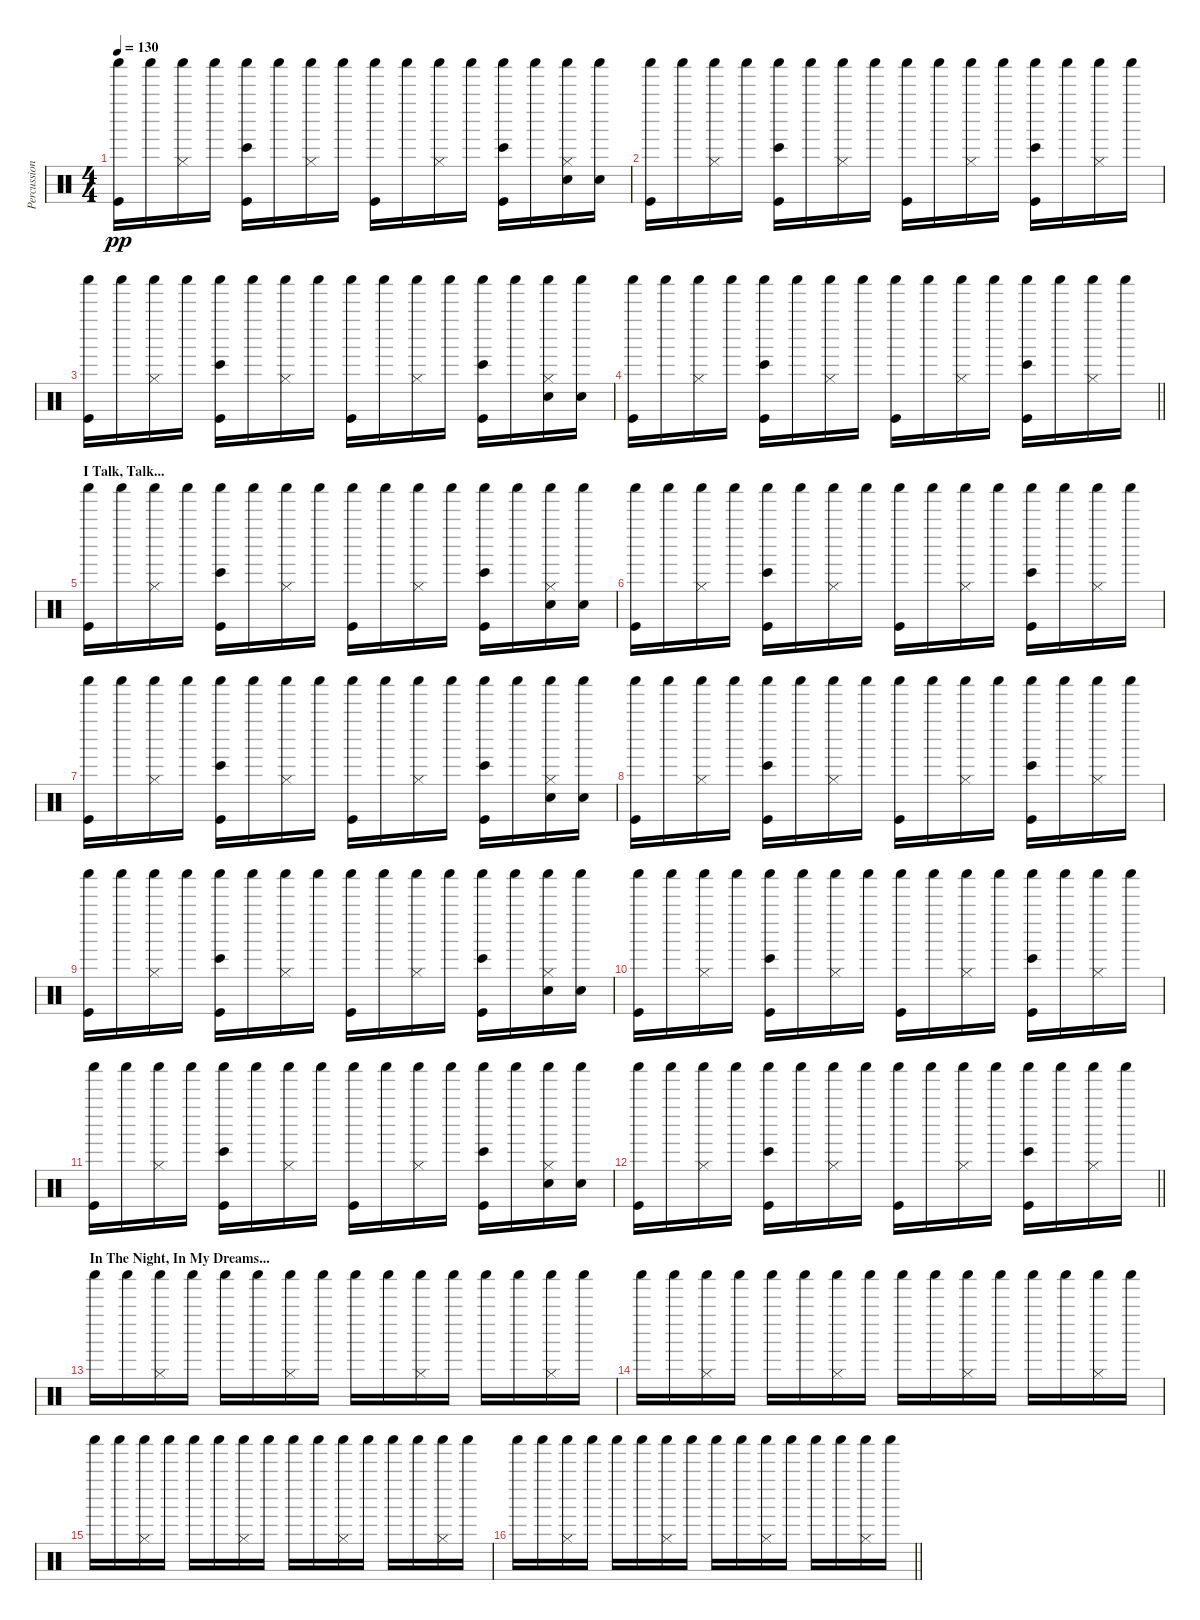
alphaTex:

\track ("Percussion" "Percussion") {instrument percussion}
\staff {score}
\articulation defaults
\ts (4 4)
\tempo 130
\clef neutral
\ks c
("Kick (hit)" "Shaker (hit)").16{dy pp} "Shaker (hit)".16 ("Hi-Hat (closed)" "Shaker (hit)").16 "Shaker (hit)".16 ("Kick (hit)" "Bongo High (hit)" "Shaker (hit)").16 "Shaker (hit)".16 ("Hi-Hat (closed)" "Shaker (hit)").16 "Shaker (hit)".16 ("Kick (hit)" "Shaker (hit)").16 "Shaker (hit)".16 ("Hi-Hat (closed)" "Shaker (hit)").16 "Shaker (hit)".16 ("Kick (hit)" "Bongo High (hit)" "Shaker (hit)").16 "Shaker (hit)".16 ("Electric Snare (hit)" "Hi-Hat (closed)" "Shaker (hit)").16 ("Electric Snare (hit)" "Shaker (hit)").16 |
("Kick (hit)" "Shaker (hit)").16 "Shaker (hit)".16 ("Hi-Hat (closed)" "Shaker (hit)").16 "Shaker (hit)".16 ("Kick (hit)" "Bongo High (hit)" "Shaker (hit)").16 "Shaker (hit)".16 ("Hi-Hat (closed)" "Shaker (hit)").16 "Shaker (hit)".16 ("Kick (hit)" "Shaker (hit)").16 "Shaker (hit)".16 ("Hi-Hat (closed)" "Shaker (hit)").16 "Shaker (hit)".16 ("Kick (hit)" "Bongo High (hit)" "Shaker (hit)").16 "Shaker (hit)".16 ("Hi-Hat (closed)" "Shaker (hit)").16 "Shaker (hit)".16 |
("Kick (hit)" "Shaker (hit)").16 "Shaker (hit)".16 ("Hi-Hat (closed)" "Shaker (hit)").16 "Shaker (hit)".16 ("Kick (hit)" "Bongo High (hit)" "Shaker (hit)").16 "Shaker (hit)".16 ("Hi-Hat (closed)" "Shaker (hit)").16 "Shaker (hit)".16 ("Kick (hit)" "Shaker (hit)").16 "Shaker (hit)".16 ("Hi-Hat (closed)" "Shaker (hit)").16 "Shaker (hit)".16 ("Kick (hit)" "Bongo High (hit)" "Shaker (hit)").16 "Shaker (hit)".16 ("Electric Snare (hit)" "Hi-Hat (closed)" "Shaker (hit)").16 ("Electric Snare (hit)" "Shaker (hit)").16 |
\barLineRight lightlight
("Kick (hit)" "Shaker (hit)").16 "Shaker (hit)".16 ("Hi-Hat (closed)" "Shaker (hit)").16 "Shaker (hit)".16 ("Kick (hit)" "Bongo High (hit)" "Shaker (hit)").16 "Shaker (hit)".16 ("Hi-Hat (closed)" "Shaker (hit)").16 "Shaker (hit)".16 ("Kick (hit)" "Shaker (hit)").16 "Shaker (hit)".16 ("Hi-Hat (closed)" "Shaker (hit)").16 "Shaker (hit)".16 ("Kick (hit)" "Bongo High (hit)" "Shaker (hit)").16 "Shaker (hit)".16 ("Hi-Hat (closed)" "Shaker (hit)").16 "Shaker (hit)".16 |
\section ("" "I Talk, Talk...")
("Kick (hit)" "Shaker (hit)").16 "Shaker (hit)".16 ("Hi-Hat (closed)" "Shaker (hit)").16 "Shaker (hit)".16 ("Kick (hit)" "Bongo High (hit)" "Shaker (hit)").16 "Shaker (hit)".16 ("Hi-Hat (closed)" "Shaker (hit)").16 "Shaker (hit)".16 ("Kick (hit)" "Shaker (hit)").16 "Shaker (hit)".16 ("Hi-Hat (closed)" "Shaker (hit)").16 "Shaker (hit)".16 ("Kick (hit)" "Bongo High (hit)" "Shaker (hit)").16 "Shaker (hit)".16 ("Electric Snare (hit)" "Hi-Hat (closed)" "Shaker (hit)").16 ("Electric Snare (hit)" "Shaker (hit)").16 |
("Kick (hit)" "Shaker (hit)").16 "Shaker (hit)".16 ("Hi-Hat (closed)" "Shaker (hit)").16 "Shaker (hit)".16 ("Kick (hit)" "Bongo High (hit)" "Shaker (hit)").16 "Shaker (hit)".16 ("Hi-Hat (closed)" "Shaker (hit)").16 "Shaker (hit)".16 ("Kick (hit)" "Shaker (hit)").16 "Shaker (hit)".16 ("Hi-Hat (closed)" "Shaker (hit)").16 "Shaker (hit)".16 ("Kick (hit)" "Bongo High (hit)" "Shaker (hit)").16 "Shaker (hit)".16 ("Hi-Hat (closed)" "Shaker (hit)").16 "Shaker (hit)".16 |
("Kick (hit)" "Shaker (hit)").16 "Shaker (hit)".16 ("Hi-Hat (closed)" "Shaker (hit)").16 "Shaker (hit)".16 ("Kick (hit)" "Bongo High (hit)" "Shaker (hit)").16 "Shaker (hit)".16 ("Hi-Hat (closed)" "Shaker (hit)").16 "Shaker (hit)".16 ("Kick (hit)" "Shaker (hit)").16 "Shaker (hit)".16 ("Hi-Hat (closed)" "Shaker (hit)").16 "Shaker (hit)".16 ("Kick (hit)" "Bongo High (hit)" "Shaker (hit)").16 "Shaker (hit)".16 ("Electric Snare (hit)" "Hi-Hat (closed)" "Shaker (hit)").16 ("Electric Snare (hit)" "Shaker (hit)").16 |
("Kick (hit)" "Shaker (hit)").16 "Shaker (hit)".16 ("Hi-Hat (closed)" "Shaker (hit)").16 "Shaker (hit)".16 ("Kick (hit)" "Bongo High (hit)" "Shaker (hit)").16 "Shaker (hit)".16 ("Hi-Hat (closed)" "Shaker (hit)").16 "Shaker (hit)".16 ("Kick (hit)" "Shaker (hit)").16 "Shaker (hit)".16 ("Hi-Hat (closed)" "Shaker (hit)").16 "Shaker (hit)".16 ("Kick (hit)" "Bongo High (hit)" "Shaker (hit)").16 "Shaker (hit)".16 ("Hi-Hat (closed)" "Shaker (hit)").16 "Shaker (hit)".16 |
("Kick (hit)" "Shaker (hit)").16 "Shaker (hit)".16 ("Hi-Hat (closed)" "Shaker (hit)").16 "Shaker (hit)".16 ("Kick (hit)" "Bongo High (hit)" "Shaker (hit)").16 "Shaker (hit)".16 ("Hi-Hat (closed)" "Shaker (hit)").16 "Shaker (hit)".16 ("Kick (hit)" "Shaker (hit)").16 "Shaker (hit)".16 ("Hi-Hat (closed)" "Shaker (hit)").16 "Shaker (hit)".16 ("Kick (hit)" "Bongo High (hit)" "Shaker (hit)").16 "Shaker (hit)".16 ("Electric Snare (hit)" "Hi-Hat (closed)" "Shaker (hit)").16 ("Electric Snare (hit)" "Shaker (hit)").16 |
("Kick (hit)" "Shaker (hit)").16 "Shaker (hit)".16 ("Hi-Hat (closed)" "Shaker (hit)").16 "Shaker (hit)".16 ("Kick (hit)" "Bongo High (hit)" "Shaker (hit)").16 "Shaker (hit)".16 ("Hi-Hat (closed)" "Shaker (hit)").16 "Shaker (hit)".16 ("Kick (hit)" "Shaker (hit)").16 "Shaker (hit)".16 ("Hi-Hat (closed)" "Shaker (hit)").16 "Shaker (hit)".16 ("Kick (hit)" "Bongo High (hit)" "Shaker (hit)").16 "Shaker (hit)".16 ("Hi-Hat (closed)" "Shaker (hit)").16 "Shaker (hit)".16 |
("Kick (hit)" "Shaker (hit)").16 "Shaker (hit)".16 ("Hi-Hat (closed)" "Shaker (hit)").16 "Shaker (hit)".16 ("Kick (hit)" "Bongo High (hit)" "Shaker (hit)").16 "Shaker (hit)".16 ("Hi-Hat (closed)" "Shaker (hit)").16 "Shaker (hit)".16 ("Kick (hit)" "Shaker (hit)").16 "Shaker (hit)".16 ("Hi-Hat (closed)" "Shaker (hit)").16 "Shaker (hit)".16 ("Kick (hit)" "Bongo High (hit)" "Shaker (hit)").16 "Shaker (hit)".16 ("Electric Snare (hit)" "Hi-Hat (closed)" "Shaker (hit)").16 ("Electric Snare (hit)" "Shaker (hit)").16 |
\barLineRight lightlight
("Kick (hit)" "Shaker (hit)").16 "Shaker (hit)".16 ("Hi-Hat (closed)" "Shaker (hit)").16 "Shaker (hit)".16 ("Kick (hit)" "Bongo High (hit)" "Shaker (hit)").16 "Shaker (hit)".16 ("Hi-Hat (closed)" "Shaker (hit)").16 "Shaker (hit)".16 ("Kick (hit)" "Shaker (hit)").16 "Shaker (hit)".16 ("Hi-Hat (closed)" "Shaker (hit)").16 "Shaker (hit)".16 ("Kick (hit)" "Bongo High (hit)" "Shaker (hit)").16 "Shaker (hit)".16 ("Hi-Hat (closed)" "Shaker (hit)").16 "Shaker (hit)".16 |
\section ("" "In The Night, In My Dreams...")
"Shaker (hit)".16 "Shaker (hit)".16 ("Hi-Hat (closed)" "Shaker (hit)").16 "Shaker (hit)".16 "Shaker (hit)".16 "Shaker (hit)".16 ("Hi-Hat (closed)" "Shaker (hit)").16 "Shaker (hit)".16 "Shaker (hit)".16 "Shaker (hit)".16 ("Hi-Hat (closed)" "Shaker (hit)").16 "Shaker (hit)".16 "Shaker (hit)".16 "Shaker (hit)".16 ("Hi-Hat (closed)" "Shaker (hit)").16 "Shaker (hit)".16 |
"Shaker (hit)".16 "Shaker (hit)".16 ("Hi-Hat (closed)" "Shaker (hit)").16 "Shaker (hit)".16 "Shaker (hit)".16 "Shaker (hit)".16 ("Hi-Hat (closed)" "Shaker (hit)").16 "Shaker (hit)".16 "Shaker (hit)".16 "Shaker (hit)".16 ("Hi-Hat (closed)" "Shaker (hit)").16 "Shaker (hit)".16 "Shaker (hit)".16 "Shaker (hit)".16 ("Hi-Hat (closed)" "Shaker (hit)").16 "Shaker (hit)".16 |
"Shaker (hit)".16 "Shaker (hit)".16 ("Hi-Hat (closed)" "Shaker (hit)").16 "Shaker (hit)".16 "Shaker (hit)".16 "Shaker (hit)".16 ("Hi-Hat (closed)" "Shaker (hit)").16 "Shaker (hit)".16 "Shaker (hit)".16 "Shaker (hit)".16 ("Hi-Hat (closed)" "Shaker (hit)").16 "Shaker (hit)".16 "Shaker (hit)".16 "Shaker (hit)".16 ("Hi-Hat (closed)" "Shaker (hit)").16 "Shaker (hit)".16 |
\barLineRight lightlight "Shaker (hit)".16 "Shaker (hit)".16
("Hi-Hat (closed)" "Shaker (hit)").16 "Shaker (hit)".16 "Shaker (hit)".16 "Shaker (hit)".16 ("Hi-Hat (closed)" "Shaker (hit)").16 "Shaker (hit)".16 "Shaker (hit)".16 "Shaker (hit)".16 ("Hi-Hat (closed)" "Shaker (hit)").16 "Shaker (hit)".16 "Shaker (hit)".16 "Shaker (hit)".16 ("Hi-Hat (closed)" "Shaker (hit)").16 "Shaker (hit)".16
